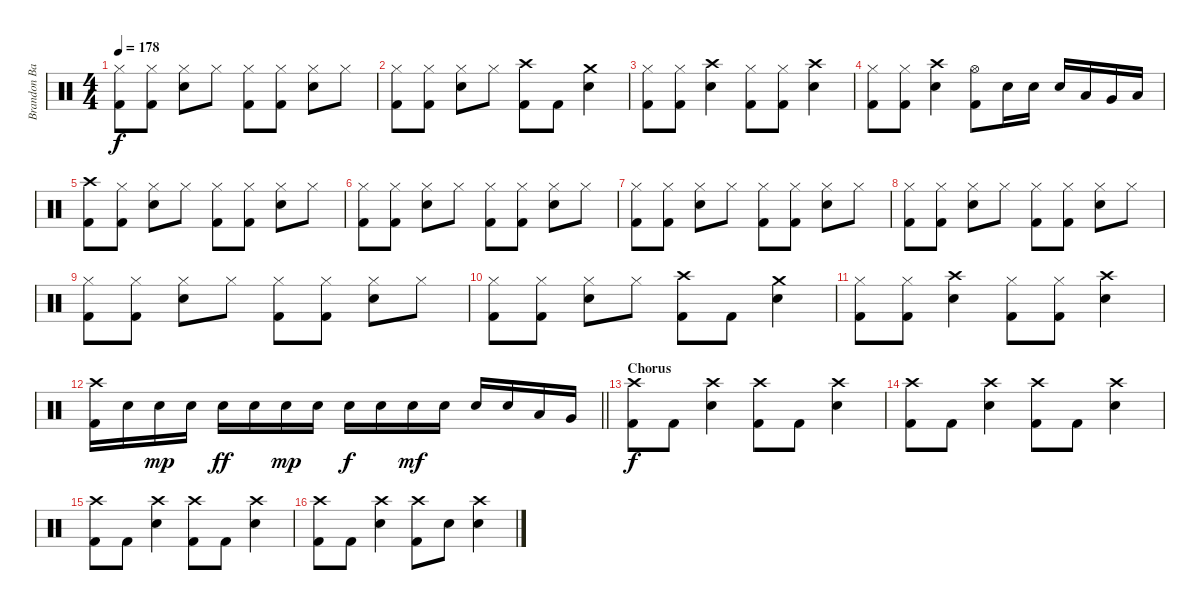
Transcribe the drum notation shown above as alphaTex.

\track ("Brandon Barnes - Drums" "Brandon Ba") {instrument percussion}
\staff {score}
\articulation defaults
\ts (4 4)
\tempo 178
\clef neutral
\ks c
("Kick (hit) 2" "Hi-Hat (closed)").8{dy f} ("Kick (hit) 2" "Hi-Hat (closed)").8 ("Snare (hit) 2" "Hi-Hat (closed)").8 "Hi-Hat (closed)".8 ("Kick (hit) 2" "Hi-Hat (closed)").8 ("Kick (hit) 2" "Hi-Hat (closed)").8 ("Snare (hit) 2" "Hi-Hat (closed)").8 "Hi-Hat (closed)".8 |
("Kick (hit) 2" "Hi-Hat (closed)").8 ("Kick (hit) 2" "Hi-Hat (closed)").8 ("Snare (hit) 2" "Hi-Hat (closed)").8 "Hi-Hat (closed)".8 ("Kick (hit) 2" "Crash high (hit)").8 "Kick (hit) 2".8 ("Snare (hit) 2" "Crash medium (hit)").4 |
("Kick (hit) 2" "Hi-Hat (closed)").8 ("Kick (hit) 2" "Hi-Hat (closed)").8 ("Snare (hit) 2" "Crash high (hit)").4 ("Kick (hit) 2" "Hi-Hat (closed)").8 ("Kick (hit) 2" "Hi-Hat (closed)").8 ("Snare (hit) 2" "Crash high (hit)").4 |
("Kick (hit) 2" "Hi-Hat (closed)").8 ("Kick (hit) 2" "Hi-Hat (closed)").8 ("Snare (hit) 2" "Crash high (hit)").4 ("Hi-Hat (open)" "Kick (hit) 2").8 "Snare (hit) 2".16 "Snare (hit) 2".16 "Snare (hit) 2".16 "Low Tom (hit)".16 "Very Low Tom (hit)".16 "Low Floor Tom (hit)".16 |
("Kick (hit) 2" "Crash high (hit)").8 ("Kick (hit) 2" "Hi-Hat (closed)").8 ("Snare (hit) 2" "Hi-Hat (closed)").8 "Hi-Hat (closed)".8 ("Kick (hit) 2" "Hi-Hat (closed)").8 ("Kick (hit) 2" "Hi-Hat (closed)").8 ("Snare (hit) 2" "Hi-Hat (closed)").8 "Hi-Hat (closed)".8 |
("Kick (hit) 2" "Hi-Hat (closed)").8 ("Kick (hit) 2" "Hi-Hat (closed)").8 ("Snare (hit) 2" "Hi-Hat (closed)").8 "Hi-Hat (closed)".8 ("Kick (hit) 2" "Hi-Hat (closed)").8 ("Kick (hit) 2" "Hi-Hat (closed)").8 ("Snare (hit) 2" "Hi-Hat (closed)").8 "Hi-Hat (closed)".8 |
("Kick (hit) 2" "Hi-Hat (closed)").8 ("Kick (hit) 2" "Hi-Hat (closed)").8 ("Snare (hit) 2" "Hi-Hat (closed)").8 "Hi-Hat (closed)".8 ("Kick (hit) 2" "Hi-Hat (closed)").8 ("Kick (hit) 2" "Hi-Hat (closed)").8 ("Snare (hit) 2" "Hi-Hat (closed)").8 "Hi-Hat (closed)".8 |
("Kick (hit) 2" "Hi-Hat (closed)").8 ("Kick (hit) 2" "Hi-Hat (closed)").8 ("Snare (hit) 2" "Hi-Hat (closed)").8 "Hi-Hat (closed)".8 ("Kick (hit) 2" "Hi-Hat (closed)").8 ("Kick (hit) 2" "Hi-Hat (closed)").8 ("Snare (hit) 2" "Hi-Hat (closed)").8 "Hi-Hat (closed)".8 |
("Kick (hit) 2" "Hi-Hat (closed)").8 ("Kick (hit) 2" "Hi-Hat (closed)").8 ("Snare (hit) 2" "Hi-Hat (closed)").8 "Hi-Hat (closed)".8 ("Kick (hit) 2" "Hi-Hat (closed)").8 ("Kick (hit) 2" "Hi-Hat (closed)").8 ("Snare (hit) 2" "Hi-Hat (closed)").8 "Hi-Hat (closed)".8 |
("Kick (hit) 2" "Hi-Hat (closed)").8 ("Kick (hit) 2" "Hi-Hat (closed)").8 ("Snare (hit) 2" "Hi-Hat (closed)").8 "Hi-Hat (closed)".8 ("Kick (hit) 2" "Crash high (hit)").8 "Kick (hit) 2".8 ("Snare (hit) 2" "Crash medium (hit)").4 |
("Kick (hit) 2" "Hi-Hat (closed)").8 ("Kick (hit) 2" "Hi-Hat (closed)").8 ("Snare (hit) 2" "Crash high (hit)").4 ("Kick (hit) 2" "Hi-Hat (closed)").8 ("Kick (hit) 2" "Hi-Hat (closed)").8 ("Snare (hit) 2" "Crash high (hit)").4 |
\barLineRight lightlight
("Crash high (hit)" "Kick (hit) 2").16 "Snare (hit) 2".16 "Snare (hit) 2".16{dy mp} "Snare (hit) 2".16 "Snare (hit) 2".16{dy ff} "Snare (hit) 2".16 "Snare (hit) 2".16{dy mp} "Snare (hit) 2".16 "Snare (hit) 2".16{dy f} "Snare (hit) 2".16 "Snare (hit) 2".16{dy mf} "Snare (hit) 2".16 "Snare (hit) 2".16 "Snare (hit) 2".16 "Low Tom (hit)".16 "Very Low Tom (hit)".16 |
\section ("" "Chorus")
("Crash high (hit)" "Kick (hit) 2").8{dy f} "Kick (hit) 2".8 ("Snare (hit) 2" "Crash high (hit)").4 ("Crash high (hit)" "Kick (hit) 2").8 "Kick (hit) 2".8 ("Snare (hit) 2" "Crash high (hit)").4 |
("Crash high (hit)" "Kick (hit) 2").8 "Kick (hit) 2".8 ("Snare (hit) 2" "Crash high (hit)").4 ("Crash high (hit)" "Kick (hit) 2").8 "Kick (hit) 2".8 ("Snare (hit) 2" "Crash high (hit)").4 |
("Crash high (hit)" "Kick (hit) 2").8 "Kick (hit) 2".8 ("Snare (hit) 2" "Crash high (hit)").4 ("Crash high (hit)" "Kick (hit) 2").8 "Kick (hit) 2".8 ("Snare (hit) 2" "Crash high (hit)").4 |
("Crash high (hit)" "Kick (hit) 2").8 "Kick (hit) 2".8 ("Snare (hit) 2" "Crash high (hit)").4 ("Crash high (hit)" "Kick (hit) 2").8 "Snare (hit) 2".8 ("Snare (hit) 2" "Crash high (hit)").4
